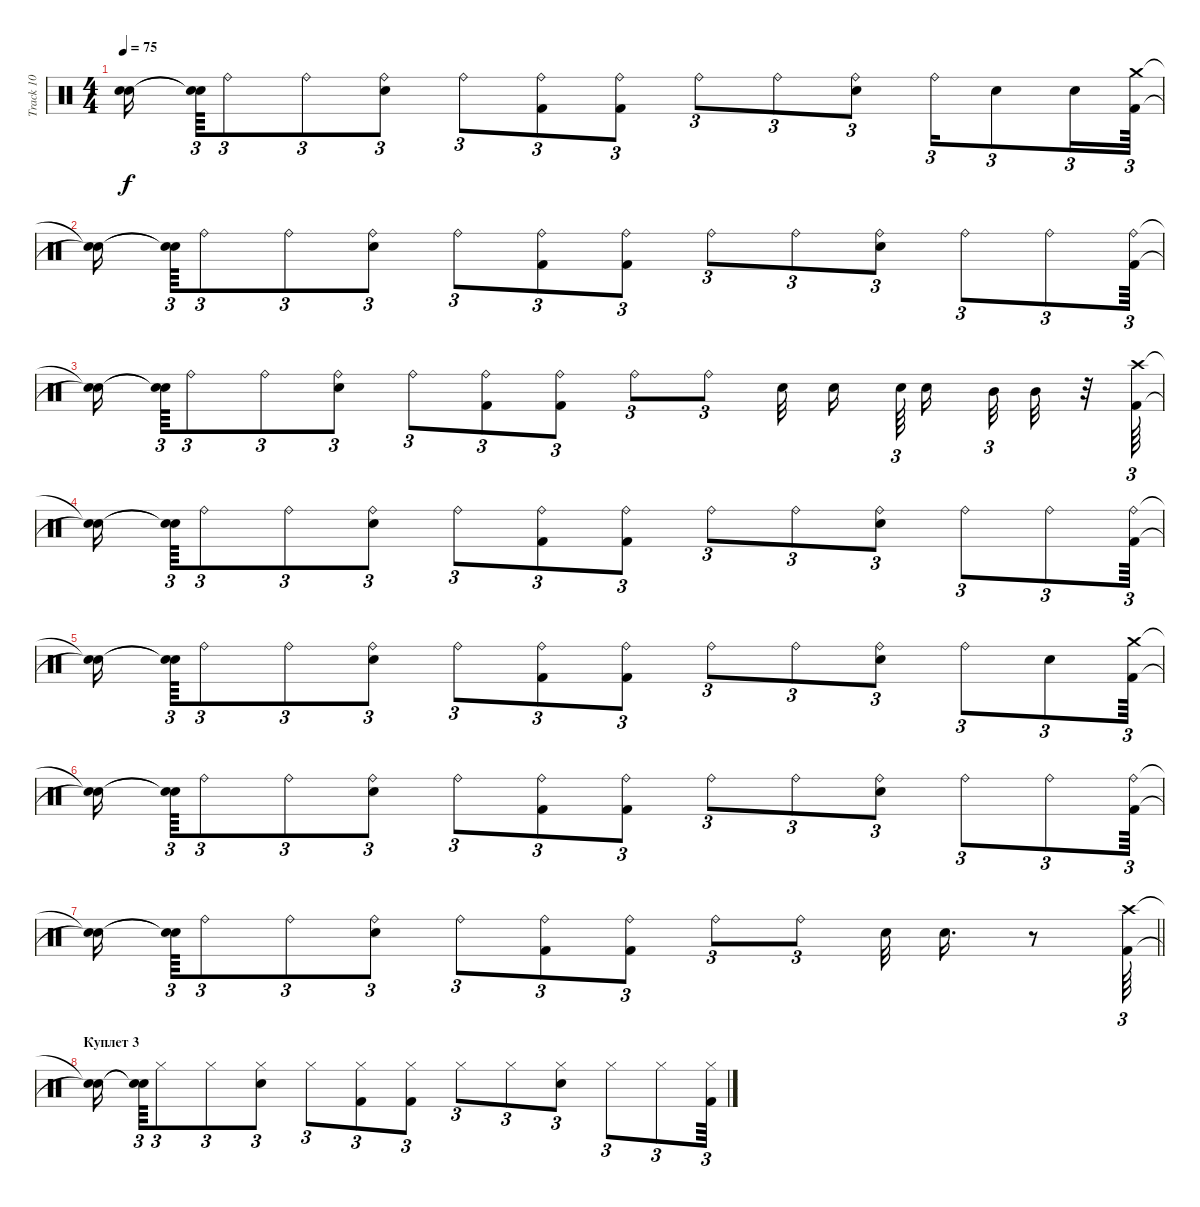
\track ("Track 10" "Track 10") {instrument percussion}
\staff {score}
\articulation defaults
\ts (4 4)
\tempo 75
\clef neutral
\ks c
("Snare (hit)"{t} "Snare (hit)"{t}).16{dy f beam splitsecondary} ("Snare (hit)"{t} "Snare (hit)"{t}).64{tu (3 2)} "Ride (bell)".8{tu (3 2)} "Ride (bell)".8{tu (3 2)} ("Snare (hit) 2" "Ride (bell)").8{tu (3 2)} "Ride (bell)".8{tu (3 2)} ("Kick (hit) 2" "Ride (bell)").8{tu (3 2)} ("Kick (hit) 2" "Ride (bell)").8{tu (3 2)} "Ride (bell)".8{tu (3 2)} "Ride (bell)".8{tu (3 2)} ("Snare (hit) 2" "Ride (bell)").8{tu (3 2)} "Ride (bell)".16{tu (3 2)} "Snare (hit) 2".8{tu (3 2)} "Snare (hit) 2".16{tu (3 2)} ("Crash medium (hit)" "Kick (hit) 2").64{tu (3 2)} |
("Snare (hit)"{t} "Snare (hit)"{t}).16{beam splitsecondary} ("Snare (hit)"{t} "Snare (hit)"{t}).64{tu (3 2)} "Ride (bell)".8{tu (3 2)} "Ride (bell)".8{tu (3 2)} ("Snare (hit) 2" "Ride (bell)").8{tu (3 2)} "Ride (bell)".8{tu (3 2)} ("Kick (hit) 2" "Ride (bell)").8{tu (3 2)} ("Kick (hit) 2" "Ride (bell)").8{tu (3 2)} "Ride (bell)".8{tu (3 2)} "Ride (bell)".8{tu (3 2)} ("Snare (hit) 2" "Ride (bell)").8{tu (3 2)} "Ride (bell)".8{tu (3 2)} "Ride (bell)".8{tu (3 2)} ("Kick (hit) 2" "Ride (bell)").64{tu (3 2)} |
("Snare (hit)"{t} "Snare (hit)"{t}).16{beam splitsecondary} ("Snare (hit)"{t} "Snare (hit)"{t}).64{tu (3 2)} "Ride (bell)".8{tu (3 2)} "Ride (bell)".8{tu (3 2)} ("Snare (hit) 2" "Ride (bell)").8{tu (3 2)} "Ride (bell)".8{tu (3 2)} ("Kick (hit) 2" "Ride (bell)").8{tu (3 2)} ("Kick (hit) 2" "Ride (bell)").8{tu (3 2)} "Ride (bell)".8{tu (3 2)} "Ride (bell)".8{tu (3 2)} "Snare (hit) 2".32 "Snare (hit) 2".16{beam splitsecondary} "Snare (hit) 2".64{tu (3 2) beam splitsecondary} "Snare (hit) 2".16{beam splitsecondary} "Mid Tom (hit)".32{tu (3 2)} "Mid Tom (hit)".32 r.32 ("Crash high (hit)" "Kick (hit) 2").64{tu (3 2)} |
("Snare (hit)"{t} "Snare (hit)"{t}).16{beam splitsecondary} ("Snare (hit)"{t} "Snare (hit)"{t}).64{tu (3 2)} "Ride (bell)".8{tu (3 2)} "Ride (bell)".8{tu (3 2)} ("Ride (bell)" "Snare (hit) 2").8{tu (3 2)} "Ride (bell)".8{tu (3 2)} ("Ride (bell)" "Kick (hit) 2").8{tu (3 2)} ("Ride (bell)" "Kick (hit) 2").8{tu (3 2)} "Ride (bell)".8{tu (3 2)} "Ride (bell)".8{tu (3 2)} ("Ride (bell)" "Snare (hit) 2").8{tu (3 2)} "Ride (bell)".8{tu (3 2)} "Ride (bell)".8{tu (3 2)} ("Ride (bell)" "Kick (hit) 2").64{tu (3 2)} |
("Snare (hit)"{t} "Snare (hit)"{t}).16{beam splitsecondary} ("Snare (hit)"{t} "Snare (hit)"{t}).64{tu (3 2)} "Ride (bell)".8{tu (3 2)} "Ride (bell)".8{tu (3 2)} ("Ride (bell)" "Snare (hit) 2").8{tu (3 2)} "Ride (bell)".8{tu (3 2)} ("Ride (bell)" "Kick (hit) 2").8{tu (3 2)} ("Ride (bell)" "Kick (hit) 2").8{tu (3 2)} "Ride (bell)".8{tu (3 2)} "Ride (bell)".8{tu (3 2)} ("Ride (bell)" "Snare (hit) 2").8{tu (3 2)} "Ride (bell)".8{tu (3 2)} "Snare (hit) 2".8{tu (3 2)} ("Crash medium (hit)" "Kick (hit) 2").64{tu (3 2)} |
("Snare (hit)"{t} "Snare (hit)"{t}).16{beam splitsecondary} ("Snare (hit)"{t} "Snare (hit)"{t}).64{tu (3 2)} "Ride (bell)".8{tu (3 2)} "Ride (bell)".8{tu (3 2)} ("Ride (bell)" "Snare (hit) 2").8{tu (3 2)} "Ride (bell)".8{tu (3 2)} ("Ride (bell)" "Kick (hit) 2").8{tu (3 2)} ("Ride (bell)" "Kick (hit) 2").8{tu (3 2)} "Ride (bell)".8{tu (3 2)} "Ride (bell)".8{tu (3 2)} ("Ride (bell)" "Snare (hit) 2").8{tu (3 2)} "Ride (bell)".8{tu (3 2)} "Ride (bell)".8{tu (3 2)} ("Ride (bell)" "Kick (hit) 2").64{tu (3 2)} |
\barLineRight lightlight
("Snare (hit)"{t} "Snare (hit)"{t}).16{beam splitsecondary} ("Snare (hit)"{t} "Snare (hit)"{t}).64{tu (3 2)} "Ride (bell)".8{tu (3 2)} "Ride (bell)".8{tu (3 2)} ("Ride (bell)" "Snare (hit) 2").8{tu (3 2)} "Ride (bell)".8{tu (3 2)} ("Ride (bell)" "Kick (hit) 2").8{tu (3 2)} ("Ride (bell)" "Kick (hit) 2").8{tu (3 2)} "Ride (bell)".8{tu (3 2)} "Ride (bell)".8{tu (3 2)} "Snare (hit) 2".32 "Snare (hit) 2".16{d} r.8 ("Kick (hit) 2" "Crash high (hit)").64{tu (3 2)} |
\section ("" "Куплет 3")
("Snare (hit)"{t} "Snare (hit)"{t}).16{beam splitsecondary} ("Snare (hit)"{t} "Snare (hit)"{t}).64{tu (3 2)} "Hi-Hat (closed)".8{tu (3 2)} "Hi-Hat (closed)".8{tu (3 2)} ("Snare (hit) 2" "Hi-Hat (closed)").8{tu (3 2)} "Hi-Hat (closed)".8{tu (3 2)} ("Hi-Hat (closed)" "Kick (hit) 2").8{tu (3 2)} ("Kick (hit) 2" "Hi-Hat (closed)").8{tu (3 2)} "Hi-Hat (closed)".8{tu (3 2)} "Hi-Hat (closed)".8{tu (3 2)} ("Snare (hit) 2" "Hi-Hat (closed)").8{tu (3 2)} "Hi-Hat (closed)".8{tu (3 2)} "Hi-Hat (closed)".8{tu (3 2)} ("Kick (hit) 2" "Hi-Hat (closed)").64{tu (3 2)}
